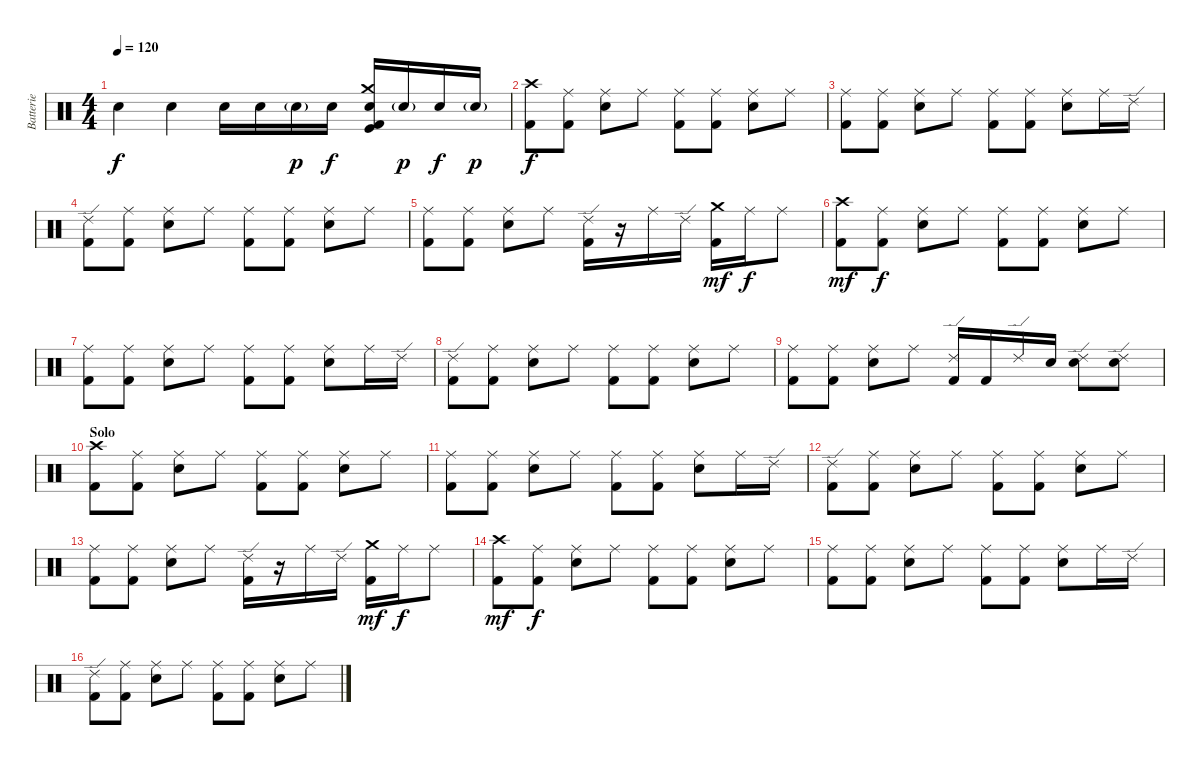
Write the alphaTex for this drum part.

\track ("Batterie" "Batterie") {instrument percussion}
\staff {score}
\articulation defaults
\ts (4 4)
\tempo 120
\clef neutral
\ks c "Snare (hit) 2".4{dy f} "Snare (hit) 2".4 "Snare (hit) 2".16 "Snare (hit) 2".16 "Snare (hit) 2"{g}.16{dy p} "Snare (hit) 2".16{dy f}
("Crash medium (hit)" "Snare (hit) 2" "Kick (hit)" "Kick (hit) 2").16 "Snare (hit) 2"{g}.16{dy p} "Snare (hit) 2".16{dy f} "Snare (hit) 2"{g}.16{dy p} |
("Crash high (hit)" "Kick (hit) 2").8{dy f} ("Ride (middle)" "Kick (hit) 2").8 ("Ride (middle)" "Snare (hit) 2").8 "Ride (middle)".8 ("Ride (middle)" "Kick (hit) 2").8 ("Ride (middle)" "Kick (hit) 2").8 ("Ride (middle)" "Snare (hit) 2").8 "Ride (middle)".8 |
("Ride (middle)" "Kick (hit) 2").8 ("Ride (middle)" "Kick (hit) 2").8 ("Ride (middle)" "Snare (hit) 2").8 "Ride (middle)".8 ("Ride (middle)" "Kick (hit) 2").8 ("Ride (middle)" "Kick (hit) 2").8 ("Ride (middle)" "Snare (hit) 2").8 "Ride (middle)".16 "Ride (edge) 2".16 |
("Ride (edge) 2" "Kick (hit) 2").8 ("Ride (middle)" "Kick (hit) 2").8 ("Ride (middle)" "Snare (hit) 2").8 "Ride (middle)".8 ("Ride (middle)" "Kick (hit) 2").8 ("Ride (middle)" "Kick (hit) 2").8 ("Ride (middle)" "Snare (hit) 2").8 "Ride (middle)".8 |
("Ride (middle)" "Kick (hit) 2").8 ("Ride (middle)" "Kick (hit) 2").8 ("Ride (middle)" "Snare (hit) 2").8 "Ride (middle)".8 ("Ride (edge) 2" "Kick (hit) 2").16 r.16 "Ride (middle)".16 "Ride (edge) 2".16 ("Crash medium (hit)" "Kick (hit) 2").16{dy mf} "Ride (middle)".16{dy f} "Ride (middle)".8 |
("Crash high (hit)" "Kick (hit) 2").8{dy mf} ("Ride (middle)" "Kick (hit) 2").8{dy f} ("Ride (middle)" "Snare (hit) 2").8 "Ride (middle)".8 ("Ride (middle)" "Kick (hit) 2").8 ("Ride (middle)" "Kick (hit) 2").8 ("Ride (middle)" "Snare (hit) 2").8 "Ride (middle)".8 |
("Ride (middle)" "Kick (hit) 2").8 ("Ride (middle)" "Kick (hit) 2").8 ("Ride (middle)" "Snare (hit) 2").8 "Ride (middle)".8 ("Ride (middle)" "Kick (hit) 2").8 ("Ride (middle)" "Kick (hit) 2").8 ("Ride (middle)" "Snare (hit) 2").8 "Ride (middle)".16 "Ride (edge) 2".16 |
("Ride (edge) 2" "Kick (hit) 2").8 ("Ride (middle)" "Kick (hit) 2").8 ("Ride (middle)" "Snare (hit) 2").8 "Ride (middle)".8 ("Ride (middle)" "Kick (hit) 2").8 ("Ride (middle)" "Kick (hit) 2").8 ("Ride (middle)" "Snare (hit) 2").8 "Ride (middle)".8 |
("Ride (middle)" "Kick (hit) 2").8 ("Ride (middle)" "Kick (hit) 2").8 ("Ride (middle)" "Snare (hit) 2").8 "Ride (middle)".8 ("Ride (edge) 2" "Kick (hit) 2").16 "Kick (hit) 2".16 "Ride (edge) 2".16 "Snare (hit) 2".16 ("Ride (edge) 2" "Snare (hit) 2").8 ("Ride (edge) 2" "Snare (hit) 2").8 |
\section ("" "Solo")
("Crash high (hit)" "Kick (hit) 2").8 ("Ride (middle)" "Kick (hit) 2").8 ("Ride (middle)" "Snare (hit) 2").8 "Ride (middle)".8 ("Ride (middle)" "Kick (hit) 2").8 ("Ride (middle)" "Kick (hit) 2").8 ("Ride (middle)" "Snare (hit) 2").8 "Ride (middle)".8 |
("Ride (middle)" "Kick (hit) 2").8 ("Ride (middle)" "Kick (hit) 2").8 ("Ride (middle)" "Snare (hit) 2").8 "Ride (middle)".8 ("Ride (middle)" "Kick (hit) 2").8 ("Ride (middle)" "Kick (hit) 2").8 ("Ride (middle)" "Snare (hit) 2").8 "Ride (middle)".16 "Ride (edge) 2".16 |
("Ride (edge) 2" "Kick (hit) 2").8 ("Ride (middle)" "Kick (hit) 2").8 ("Ride (middle)" "Snare (hit) 2").8 "Ride (middle)".8 ("Ride (middle)" "Kick (hit) 2").8 ("Ride (middle)" "Kick (hit) 2").8 ("Ride (middle)" "Snare (hit) 2").8 "Ride (middle)".8 |
("Ride (middle)" "Kick (hit) 2").8 ("Ride (middle)" "Kick (hit) 2").8 ("Ride (middle)" "Snare (hit) 2").8 "Ride (middle)".8 ("Ride (edge) 2" "Kick (hit) 2").16 r.16 "Ride (middle)".16 "Ride (edge) 2".16 ("Crash medium (hit)" "Kick (hit) 2").16{dy mf} "Ride (middle)".16{dy f} "Ride (middle)".8 |
("Crash high (hit)" "Kick (hit) 2").8{dy mf} ("Ride (middle)" "Kick (hit) 2").8{dy f} ("Ride (middle)" "Snare (hit) 2").8 "Ride (middle)".8 ("Ride (middle)" "Kick (hit) 2").8 ("Ride (middle)" "Kick (hit) 2").8 ("Ride (middle)" "Snare (hit) 2").8 "Ride (middle)".8 |
("Ride (middle)" "Kick (hit) 2").8 ("Ride (middle)" "Kick (hit) 2").8 ("Ride (middle)" "Snare (hit) 2").8 "Ride (middle)".8 ("Ride (middle)" "Kick (hit) 2").8 ("Ride (middle)" "Kick (hit) 2").8 ("Ride (middle)" "Snare (hit) 2").8 "Ride (middle)".16 "Ride (edge) 2".16 |
("Ride (edge) 2" "Kick (hit) 2").8 ("Ride (middle)" "Kick (hit) 2").8 ("Ride (middle)" "Snare (hit) 2").8 "Ride (middle)".8 ("Ride (middle)" "Kick (hit) 2").8 ("Ride (middle)" "Kick (hit) 2").8 ("Ride (middle)" "Snare (hit) 2").8 "Ride (middle)".8
